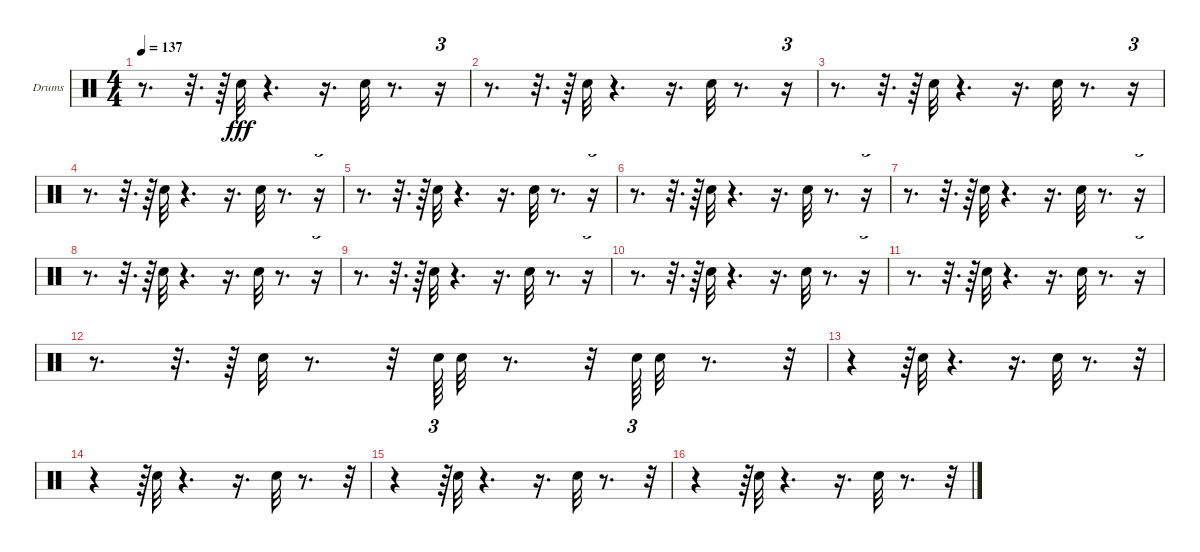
\bracketExtendMode groupsimilarinstruments
\firstSystemTrackNameOrientation horizontal
\otherSystemsTrackNameOrientation horizontal
\track ("Drumkit" "Drums") {instrument percussion}
\staff {score}
\articulation defaults
\ts (4 4)
\tempo 137
\clef neutral
\ks c
r.8{d dy fff} r.32{d} r.64 "Snare (hit) 2".32 r.4{d} r.16{d} "Snare (hit) 2".32 r.8{d} r.16{tu (3 2)} |
r.8{d} r.32{d} r.64 "Snare (hit) 2".32 r.4{d} r.16{d} "Snare (hit) 2".32 r.8{d} r.16{tu (3 2)} |
r.8{d} r.32{d} r.64 "Snare (hit) 2".32 r.4{d} r.16{d} "Snare (hit) 2".32 r.8{d} r.16{tu (3 2)} |
r.8{d} r.32{d} r.64 "Snare (hit) 2".32 r.4{d} r.16{d} "Snare (hit) 2".32 r.8{d} r.16{tu (3 2)} |
r.8{d} r.32{d} r.64 "Snare (hit) 2".32 r.4{d} r.16{d} "Snare (hit) 2".32 r.8{d} r.16{tu (3 2)} |
r.8{d} r.32{d} r.64 "Snare (hit) 2".32 r.4{d} r.16{d} "Snare (hit) 2".32 r.8{d} r.16{tu (3 2)} |
r.8{d} r.32{d} r.64 "Snare (hit) 2".32 r.4{d} r.16{d} "Snare (hit) 2".32 r.8{d} r.16{tu (3 2)} |
r.8{d} r.32{d} r.64 "Snare (hit) 2".32 r.4{d} r.16{d} "Snare (hit) 2".32 r.8{d} r.16{tu (3 2)} |
r.8{d} r.32{d} r.64 "Snare (hit) 2".32 r.4{d} r.16{d} "Snare (hit) 2".32 r.8{d} r.16{tu (3 2)} |
r.8{d} r.32{d} r.64 "Snare (hit) 2".32 r.4{d} r.16{d} "Snare (hit) 2".32 r.8{d} r.16{tu (3 2)} |
r.8{d} r.32{d} r.64 "Snare (hit) 2".32 r.4{d} r.16{d} "Snare (hit) 2".32 r.8{d} r.16{tu (3 2)} |
r.8{d} r.32{d} r.64 "Snare (hit) 2".32 r.8{d} r.32 "Snare (hit) 2".64{tu (3 2)} "Snare (hit) 2".32 r.8{d} r.32 "Snare (hit) 2".64{tu (3 2)} "Snare (hit) 2".32 r.8{d} r.32{tu (3 2)} |
r.4 r.64{tu (3 2)} "Snare (hit) 2".32 r.4{d} r.16{d} "Snare (hit) 2".32 r.8{d} r.32{tu (3 2)} |
r.4 r.64{tu (3 2)} "Snare (hit) 2".32 r.4{d} r.16{d} "Snare (hit) 2".32 r.8{d} r.32{tu (3 2)} |
r.4 r.64{tu (3 2)} "Snare (hit) 2".32 r.4{d} r.16{d} "Snare (hit) 2".32 r.8{d} r.32{tu (3 2)} |
r.4 r.64{tu (3 2)} "Snare (hit) 2".32 r.4{d} r.16{d} "Snare (hit) 2".32 r.8{d} r.32{tu (3 2)}
